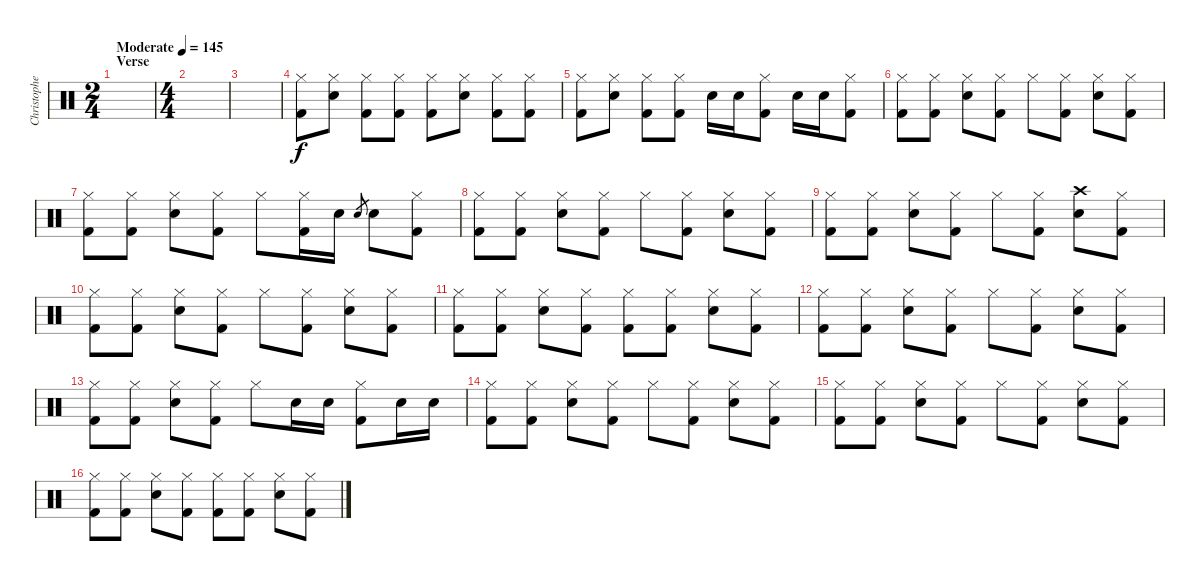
\track ("Christopher - Drums" "Christophe") {instrument percussion}
\staff {score}
\articulation defaults
\ts (2 4)
\section ("" "Verse")
\tempo (145 "Moderate")
\clef neutral
\ks c
|
\ts (4 4)
|
|
("Hi-Hat (closed)" "Kick (hit) 2").8 ("Hi-Hat (closed)" "Electric Snare (hit)").8 ("Hi-Hat (closed)" "Kick (hit) 2").8 ("Hi-Hat (closed)" "Kick (hit) 2").8 ("Hi-Hat (closed)" "Kick (hit) 2").8 ("Hi-Hat (closed)" "Electric Snare (hit)").8 ("Hi-Hat (closed)" "Kick (hit) 2").8 ("Hi-Hat (closed)" "Kick (hit) 2").8 |
("Hi-Hat (closed)" "Kick (hit) 2").8 ("Hi-Hat (closed)" "Electric Snare (hit)").8 ("Hi-Hat (closed)" "Kick (hit) 2").8 ("Hi-Hat (closed)" "Kick (hit) 2").8 "Electric Snare (hit)".16 "Electric Snare (hit)".16 ("Hi-Hat (closed)" "Kick (hit) 2").8 "Electric Snare (hit)".16 "Electric Snare (hit)".16 ("Hi-Hat (closed)" "Kick (hit) 2").8 |
("Hi-Hat (closed)" "Kick (hit) 2").8 ("Hi-Hat (closed)" "Kick (hit) 2").8 ("Hi-Hat (closed)" "Electric Snare (hit)").8 ("Hi-Hat (closed)" "Kick (hit) 2").8 "Hi-Hat (closed)".8 ("Hi-Hat (closed)" "Kick (hit) 2").8 ("Hi-Hat (closed)" "Electric Snare (hit)").8 ("Hi-Hat (closed)" "Kick (hit) 2").8 |
("Hi-Hat (closed)" "Kick (hit) 2").8 ("Hi-Hat (closed)" "Kick (hit) 2").8 ("Hi-Hat (closed)" "Electric Snare (hit)").8 ("Hi-Hat (closed)" "Kick (hit) 2").8 "Hi-Hat (closed)".8 ("Hi-Hat (closed)" "Kick (hit) 2").16 "Electric Snare (hit)".16 "Electric Snare (hit)".8{gr} "Electric Snare (hit)".8 ("Hi-Hat (closed)" "Kick (hit) 2").8 |
("Hi-Hat (closed)" "Kick (hit) 2").8 ("Hi-Hat (closed)" "Kick (hit) 2").8 ("Hi-Hat (closed)" "Electric Snare (hit)").8 ("Hi-Hat (closed)" "Kick (hit) 2").8 "Hi-Hat (closed)".8 ("Hi-Hat (closed)" "Kick (hit) 2").8 ("Hi-Hat (closed)" "Electric Snare (hit)").8 ("Hi-Hat (closed)" "Kick (hit) 2").8 |
("Hi-Hat (closed)" "Kick (hit) 2").8 ("Hi-Hat (closed)" "Kick (hit) 2").8 ("Hi-Hat (closed)" "Electric Snare (hit)").8 ("Hi-Hat (closed)" "Kick (hit) 2").8 "Hi-Hat (closed)".8 ("Hi-Hat (closed)" "Kick (hit) 2").8 ("Crash high (hit)" "Electric Snare (hit)").8 ("Hi-Hat (closed)" "Kick (hit) 2").8 |
("Hi-Hat (closed)" "Kick (hit) 2").8 ("Hi-Hat (closed)" "Kick (hit) 2").8 ("Hi-Hat (closed)" "Electric Snare (hit)").8 ("Hi-Hat (closed)" "Kick (hit) 2").8 "Hi-Hat (closed)".8 ("Hi-Hat (closed)" "Kick (hit) 2").8 ("Hi-Hat (closed)" "Electric Snare (hit)").8 ("Hi-Hat (closed)" "Kick (hit) 2").8 |
("Hi-Hat (closed)" "Kick (hit) 2").8 ("Hi-Hat (closed)" "Kick (hit) 2").8 ("Hi-Hat (closed)" "Electric Snare (hit)").8 ("Hi-Hat (closed)" "Kick (hit) 2").8 ("Hi-Hat (closed)" "Kick (hit) 2").8 ("Hi-Hat (closed)" "Kick (hit) 2").8 ("Hi-Hat (closed)" "Electric Snare (hit)").8 ("Hi-Hat (closed)" "Kick (hit) 2").8 |
("Hi-Hat (closed)" "Kick (hit) 2").8 ("Hi-Hat (closed)" "Kick (hit) 2").8 ("Hi-Hat (closed)" "Electric Snare (hit)").8 ("Hi-Hat (closed)" "Kick (hit) 2").8 "Hi-Hat (closed)".8 ("Hi-Hat (closed)" "Kick (hit) 2").8 ("Hi-Hat (closed)" "Electric Snare (hit)").8 ("Hi-Hat (closed)" "Kick (hit) 2").8 |
("Hi-Hat (closed)" "Kick (hit) 2").8 ("Hi-Hat (closed)" "Kick (hit) 2").8 ("Hi-Hat (closed)" "Electric Snare (hit)").8 ("Hi-Hat (closed)" "Kick (hit) 2").8 "Hi-Hat (closed)".8 "Electric Snare (hit)".16 "Electric Snare (hit)".16 ("Hi-Hat (closed)" "Kick (hit) 2").8 "Electric Snare (hit)".16 "Electric Snare (hit)".16 |
("Hi-Hat (closed)" "Kick (hit) 2").8 ("Hi-Hat (closed)" "Kick (hit) 2").8 ("Hi-Hat (closed)" "Electric Snare (hit)").8 ("Hi-Hat (closed)" "Kick (hit) 2").8 "Hi-Hat (closed)".8 ("Hi-Hat (closed)" "Kick (hit) 2").8 ("Hi-Hat (closed)" "Electric Snare (hit)").8 ("Hi-Hat (closed)" "Kick (hit) 2").8 |
("Hi-Hat (closed)" "Kick (hit) 2").8 ("Hi-Hat (closed)" "Kick (hit) 2").8 ("Hi-Hat (closed)" "Electric Snare (hit)").8 ("Hi-Hat (closed)" "Kick (hit) 2").8 "Hi-Hat (closed)".8 ("Hi-Hat (closed)" "Kick (hit) 2").8 ("Hi-Hat (closed)" "Electric Snare (hit)").8 ("Hi-Hat (closed)" "Kick (hit) 2").8 |
("Hi-Hat (closed)" "Kick (hit) 2").8 ("Hi-Hat (closed)" "Kick (hit) 2").8 ("Hi-Hat (closed)" "Electric Snare (hit)").8 ("Hi-Hat (closed)" "Kick (hit) 2").8 ("Hi-Hat (closed)" "Kick (hit) 2").8 ("Hi-Hat (closed)" "Kick (hit) 2").8 ("Hi-Hat (closed)" "Electric Snare (hit)").8 ("Hi-Hat (closed)" "Kick (hit) 2").8
